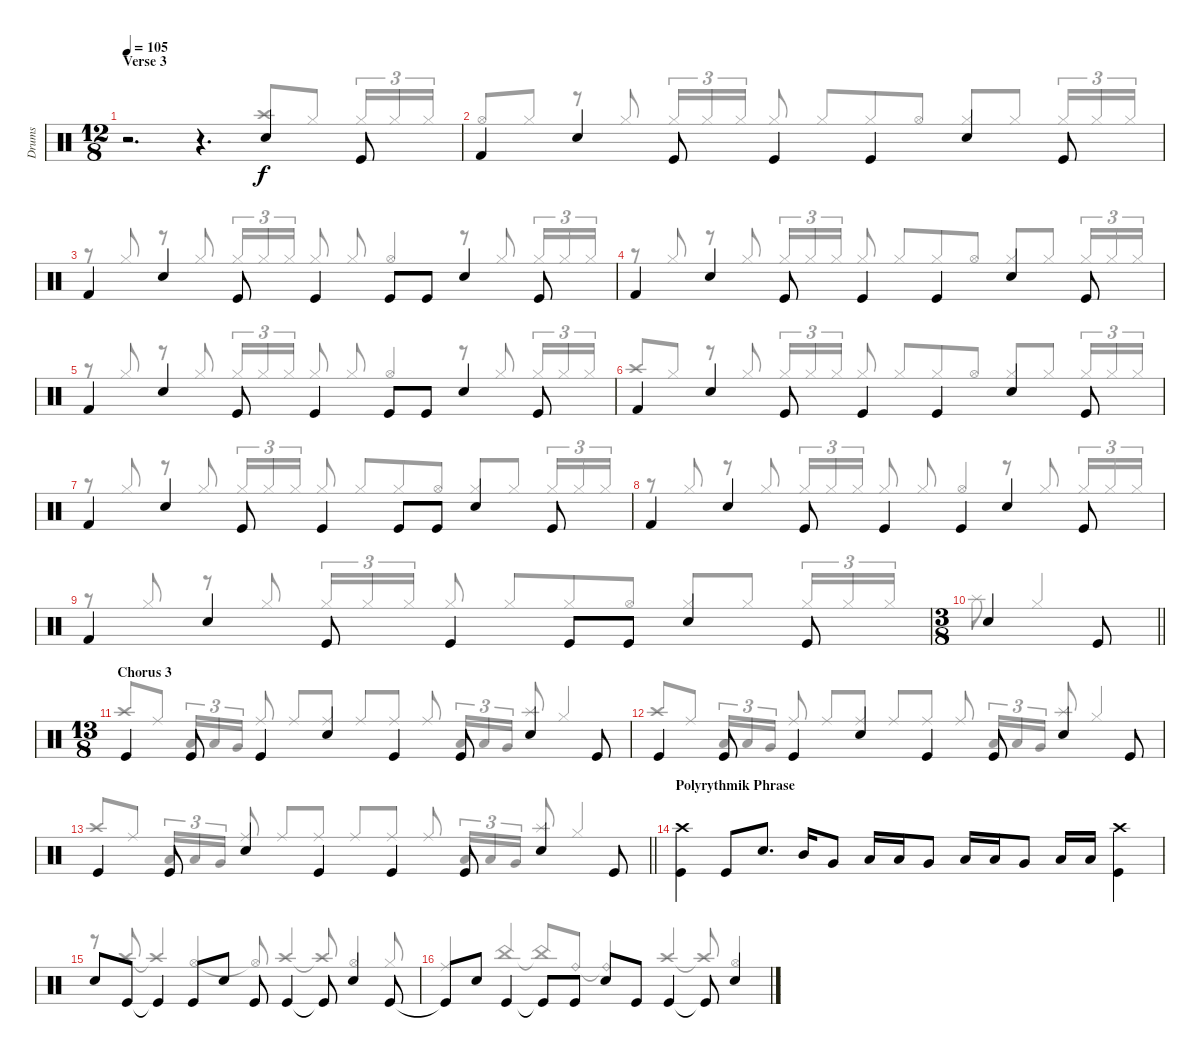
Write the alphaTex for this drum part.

\track ("Drums" "Drums") {instrument percussion}
\staff {score}
\articulation defaults
\voice
\ts (12 8)
\section ("" "Verse 3")
\tempo 105
\clef neutral
\ks aminor
r.2{d dy f volume 10} r.4{d} "Snare (hit) 2".4 "Kick (hit)".8 |
"Kick (hit) 2".4 "Snare (hit) 2".4 "Kick (hit)".8 "Kick (hit)".4 "Kick (hit)".4 "Snare (hit) 2".4 "Kick (hit)".8 |
"Kick (hit) 2".4 "Snare (hit) 2".4 "Kick (hit)".8 "Kick (hit)".4 "Kick (hit)".8 "Kick (hit)".8 "Snare (hit) 2".4 "Kick (hit)".8 |
"Kick (hit) 2".4 "Snare (hit) 2".4 "Kick (hit)".8 "Kick (hit)".4 "Kick (hit)".4 "Snare (hit) 2".4 "Kick (hit)".8 |
"Kick (hit) 2".4 "Snare (hit) 2".4 "Kick (hit)".8 "Kick (hit)".4 "Kick (hit)".8 "Kick (hit)".8 "Snare (hit) 2".4 "Kick (hit)".8 |
"Kick (hit) 2".4 "Snare (hit) 2".4 "Kick (hit)".8 "Kick (hit)".4 "Kick (hit)".4 "Snare (hit) 2".4 "Kick (hit)".8 |
"Kick (hit) 2".4 "Snare (hit) 2".4 "Kick (hit)".8 "Kick (hit)".4 "Kick (hit)".8 "Kick (hit)".8 "Snare (hit) 2".4 "Kick (hit)".8 |
"Kick (hit) 2".4{volume 12} "Snare (hit) 2".4 "Kick (hit)".8 "Kick (hit)".4 "Kick (hit)".4 "Snare (hit) 2".4 "Kick (hit)".8 |
"Kick (hit) 2".4 "Snare (hit) 2".4 "Kick (hit)".8 "Kick (hit)".4 "Kick (hit)".8 "Kick (hit)".8 "Snare (hit) 2".4 "Kick (hit)".8 |
\ts (3 8)
\barLineRight lightlight "Snare (hit) 2".4 "Kick (hit)".8
|
\ts (13 8)
\section ("" "Chorus 3")
"Kick (hit)".4 "Kick (hit)".8 "Kick (hit)".4 "Snare (hit) 2".4 "Kick (hit)".4 "Kick (hit)".8 "Snare (hit) 2".4 "Kick (hit)".8 |
"Kick (hit)".4 "Kick (hit)".8 "Kick (hit)".4 "Snare (hit) 2".4 "Kick (hit)".4 "Kick (hit)".8 "Snare (hit) 2".4 "Kick (hit)".8 |
\barLineRight lightlight "Kick (hit)".4 "Kick (hit)".8 "Snare (hit) 2".4 "Kick (hit)".4 "Kick (hit)".4 "Kick (hit)".8 "Snare (hit) 2".4 "Kick (hit)".8
|
\section ("" "Polyrythmik Phrase")
("Crash high (hit)" "Kick (hit)").4 "Kick (hit)".8 "Snare (hit) 2".8{d} "Mid Tom (hit)".16 "Very Low Tom (hit)".8 "Low Tom (hit)".16 "Low Tom (hit)".16 "Very Low Tom (hit)".8 "Low Tom (hit)".16 "Low Tom (hit)".16 "Very Low Tom (hit)".8 "Low Tom (hit)".16 "Low Tom (hit)".16 ("Kick (hit)" "Crash high (hit)").4 |
"Snare (hit) 2".8 "Kick (hit)".8 "Kick (hit)"{t}.4 "Kick (hit)".8 "Snare (hit) 2".8 "Kick (hit)".8 "Kick (hit)".4 "Kick (hit)"{t}.8 "Snare (hit) 2".4 "Kick (hit)".8 |
"Kick (hit)"{t}.8 "Snare (hit) 2".8 "Kick (hit)".4 "Kick (hit)"{t}.8 "Kick (hit)".8 "Snare (hit) 2".8 "Kick (hit)".8 "Kick (hit)".4 "Kick (hit)"{t}.8 "Snare (hit) 2".4
\voice
\clef neutral
\ottava regular
\simile none
\ks aminor
r.2{d dy f} r.4{d beam Up} "Crash high (hit)".8{beam Up} "Hi-Hat (closed)".8{beam Up} "Hi-Hat (closed)".16{tu (3 2) beam Up} "Hi-Hat (closed)".16{tu (3 2) beam Up} "Hi-Hat (closed)".16{tu (3 2) beam Up} |
"Hi-Hat (open)".8{beam Up} "Hi-Hat (closed)".8{beam Up} r.8 "Hi-Hat (closed)".8{beam Up} "Hi-Hat (closed)".16{tu (3 2) beam Up} "Hi-Hat (closed)".16{tu (3 2) beam Up} "Hi-Hat (closed)".16{tu (3 2) beam Up} "Hi-Hat (closed)".8{beam Up} "Hi-Hat (closed)".8{beam Up} "Hi-Hat (closed)".8{beam Up} "Hi-Hat (open)".8{beam Up} "Hi-Hat (closed)".8{beam Up} "Hi-Hat (closed)".8{beam Up} "Hi-Hat (closed)".16{tu (3 2) beam Up} "Hi-Hat (closed)".16{tu (3 2) beam Up} "Hi-Hat (closed)".16{tu (3 2) beam Up} |
r.8{beam Up} "Hi-Hat (closed)".8{beam Up} r.8 "Hi-Hat (closed)".8{beam Up} "Hi-Hat (closed)".16{tu (3 2) beam Up} "Hi-Hat (closed)".16{tu (3 2) beam Up} "Hi-Hat (closed)".16{tu (3 2) beam Up} "Hi-Hat (closed)".8{beam Up} "Hi-Hat (closed)".8{beam Up} "Hi-Hat (open)".4{beam Up} r.8 "Hi-Hat (closed)".8{beam Up} "Hi-Hat (closed)".16{tu (3 2) beam Up} "Hi-Hat (closed)".16{tu (3 2) beam Up} "Hi-Hat (closed)".16{tu (3 2) beam Up} |
r.8 "Hi-Hat (closed)".8{beam Up} r.8 "Hi-Hat (closed)".8{beam Up} "Hi-Hat (closed)".16{tu (3 2) beam Up} "Hi-Hat (closed)".16{tu (3 2) beam Up} "Hi-Hat (closed)".16{tu (3 2) beam Up} "Hi-Hat (closed)".8{beam Up} "Hi-Hat (closed)".8{beam Up} "Hi-Hat (closed)".8{beam Up} "Hi-Hat (open)".8{beam Up} "Hi-Hat (closed)".8{beam Up} "Hi-Hat (closed)".8{beam Up} "Hi-Hat (closed)".16{tu (3 2) beam Up} "Hi-Hat (closed)".16{tu (3 2) beam Up} "Hi-Hat (closed)".16{tu (3 2) beam Up} |
r.8{beam Up} "Hi-Hat (closed)".8{beam Up} r.8 "Hi-Hat (closed)".8{beam Up} "Hi-Hat (closed)".16{tu (3 2) beam Up} "Hi-Hat (closed)".16{tu (3 2) beam Up} "Hi-Hat (closed)".16{tu (3 2) beam Up} "Hi-Hat (closed)".8{beam Up} "Hi-Hat (closed)".8{beam Up} "Hi-Hat (open)".4{beam Up} r.8 "Hi-Hat (closed)".8{beam Up} "Hi-Hat (closed)".16{tu (3 2) beam Up} "Hi-Hat (closed)".16{tu (3 2) beam Up} "Hi-Hat (closed)".16{tu (3 2) beam Up} |
"Crash high (hit)".8{beam Up} "Hi-Hat (closed)".8{beam Up} r.8 "Hi-Hat (closed)".8{beam Up} "Hi-Hat (closed)".16{tu (3 2) beam Up} "Hi-Hat (closed)".16{tu (3 2) beam Up} "Hi-Hat (closed)".16{tu (3 2) beam Up} "Hi-Hat (closed)".8{beam Up} "Hi-Hat (closed)".8{beam Up} "Hi-Hat (closed)".8{beam Up} "Hi-Hat (open)".8{beam Up} "Hi-Hat (closed)".8{beam Up} "Hi-Hat (closed)".8{beam Up} "Hi-Hat (closed)".16{tu (3 2) beam Up} "Hi-Hat (closed)".16{tu (3 2) beam Up} "Hi-Hat (closed)".16{tu (3 2) beam Up} |
r.8 "Hi-Hat (closed)".8{beam Up} r.8 "Hi-Hat (closed)".8{beam Up} "Hi-Hat (closed)".16{tu (3 2) beam Up} "Hi-Hat (closed)".16{tu (3 2) beam Up} "Hi-Hat (closed)".16{tu (3 2) beam Up} "Hi-Hat (closed)".8{beam Up} "Hi-Hat (closed)".8{beam Up} "Hi-Hat (closed)".8{beam Up} "Hi-Hat (open)".8{beam Up} "Hi-Hat (closed)".8{beam Up} "Hi-Hat (closed)".8{beam Up} "Hi-Hat (closed)".16{tu (3 2) beam Up} "Hi-Hat (closed)".16{tu (3 2) beam Up} "Hi-Hat (closed)".16{tu (3 2) beam Up} |
r.8{beam Up} "Hi-Hat (closed)".8{beam Up} r.8 "Hi-Hat (closed)".8{beam Up} "Hi-Hat (closed)".16{tu (3 2) beam Up} "Hi-Hat (closed)".16{tu (3 2) beam Up} "Hi-Hat (closed)".16{tu (3 2) beam Up} "Hi-Hat (closed)".8{beam Up} "Hi-Hat (closed)".8{beam Up} "Hi-Hat (open)".4{beam Up} r.8 "Hi-Hat (closed)".8{beam Up} "Hi-Hat (closed)".16{tu (3 2) beam Up} "Hi-Hat (closed)".16{tu (3 2) beam Up} "Hi-Hat (closed)".16{tu (3 2) beam Up} |
r.8 "Hi-Hat (closed)".8{beam Up} r.8 "Hi-Hat (closed)".8{beam Up} "Hi-Hat (closed)".16{tu (3 2) beam Up} "Hi-Hat (closed)".16{tu (3 2) beam Up} "Hi-Hat (closed)".16{tu (3 2) beam Up} "Hi-Hat (closed)".8{beam Up} "Hi-Hat (closed)".8{beam Up} "Hi-Hat (closed)".8{beam Up} "Hi-Hat (open)".8{beam Up} "Hi-Hat (closed)".8{beam Up} "Hi-Hat (closed)".8{beam Up} "Hi-Hat (closed)".16{tu (3 2) beam Up} "Hi-Hat (closed)".16{tu (3 2) beam Up} "Hi-Hat (closed)".16{tu (3 2) beam Up} |
\barLineRight lightlight "Splash (hit)".8 "Hi-Hat (closed)".4{beam Up}
|
"Crash high (hit)".8{beam Up} "Ride (middle)".8{beam Up} "Low Tom (hit)".16{tu (3 2) beam Up} "Low Tom (hit)".16{tu (3 2) beam Up} "Very Low Tom (hit)".16{tu (3 2) beam Up} "Ride (middle)".8{beam Up} "Ride (middle)".8{beam Up} "Ride (middle)".8{beam Up} "Ride (middle)".8{beam Up} "Ride (middle)".8{beam Up} "Ride (middle)".8{beam Up} "Low Tom (hit)".16{tu (3 2) beam Up} "Low Tom (hit)".16{tu (3 2) beam Up} "Very Low Tom (hit)".16{tu (3 2) beam Up} "Splash (hit)".8{beam Up} "Hi-Hat (closed)".4{beam Up} |
"Crash high (hit)".8{beam Up} "Ride (middle)".8{beam Up} "Low Tom (hit)".16{tu (3 2) beam Up} "Low Tom (hit)".16{tu (3 2) beam Up} "Very Low Tom (hit)".16{tu (3 2) beam Up} "Ride (middle)".8{beam Up} "Ride (middle)".8{beam Up} "Ride (middle)".8{beam Up} "Ride (middle)".8{beam Up} "Ride (middle)".8{beam Up} "Ride (middle)".8{beam Up} "Low Tom (hit)".16{tu (3 2) beam Up} "Low Tom (hit)".16{tu (3 2) beam Up} "Very Low Tom (hit)".16{tu (3 2) beam Up} "Splash (hit)".8{beam Up} "Hi-Hat (closed)".4{beam Up} |
\barLineRight lightlight "Crash high (hit)".8{beam Up} "Ride (middle)".8{beam Up} "Low Tom (hit)".16{tu (3 2) beam Up} "Low Tom (hit)".16{tu (3 2) beam Up} "Very Low Tom (hit)".16{tu (3 2) beam Up} "Ride (middle)".8{beam Up} "Ride (middle)".8{beam Up} "Ride (middle)".8{beam Up} "Ride (middle)".8{beam Up} "Ride (middle)".8{beam Up} "Ride (middle)".8{beam Up} "Low Tom (hit)".16{tu (3 2) beam Up} "Low Tom (hit)".16{tu (3 2) beam Up} "Very Low Tom (hit)".16{tu (3 2) beam Up} "Splash (hit)".8{beam Up} "Hi-Hat (closed)".4{beam Up}
|
|
r.8{beam Up} "Crash high (hit)".8{beam Up} "Crash high (hit)"{t}.4{beam Up} "Hi-Hat (open)".4{beam Up} "Hi-Hat (open)"{t}.8{beam Up} "Crash high (hit)".4{beam Up} "Crash high (hit)"{t}.8{beam Up} "Hi-Hat (open)".4{beam Up} "Hi-Hat (closed)".8{beam Up} |
"Ride (middle)".4{beam Up} "China (hit)".4{beam Up} "China (hit)"{t}.8{beam Up} "Ride (bell)".8{beam Up} "Ride (bell)"{t}.4{beam Up} "Crash high (hit)".4{beam Up} "Crash high (hit)"{t}.8{beam Up} "Hi-Hat (open)".4{beam Up}
